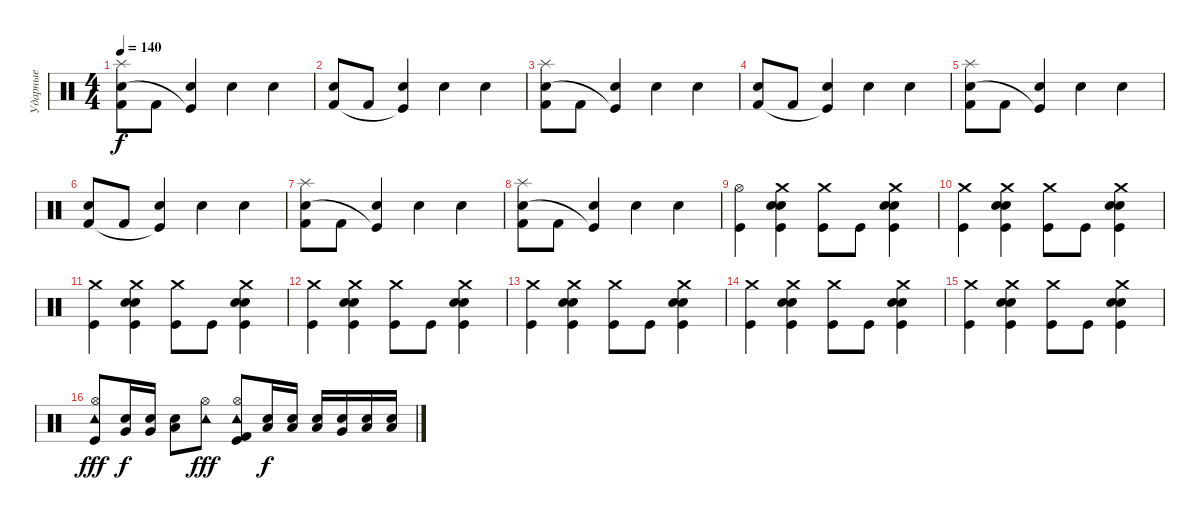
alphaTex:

\track ("Ударные" "Ударные") {instrument percussion}
\staff {score}
\articulation defaults
\ts (4 4)
\tempo 140
\clef neutral
\ks c
("Splash (hit)" "Electric Snare (hit)" "Kick (hit) 2").8{dy f} "Kick (hit) 2".8 ("Electric Snare (hit)" "Kick (hit)"{t}).4 "Electric Snare (hit)".4 "Electric Snare (hit)".4 |
("Electric Snare (hit)" "Kick (hit) 2").8 "Kick (hit) 2".8 ("Electric Snare (hit)" "Kick (hit)"{t}).4 "Electric Snare (hit)".4 "Electric Snare (hit)".4 |
("Splash (hit)" "Electric Snare (hit)" "Kick (hit) 2").8 "Kick (hit) 2".8 ("Electric Snare (hit)" "Kick (hit)"{t}).4 "Electric Snare (hit)".4 "Electric Snare (hit)".4 |
("Electric Snare (hit)" "Kick (hit) 2").8 "Kick (hit) 2".8 ("Electric Snare (hit)" "Kick (hit)"{t}).4 "Electric Snare (hit)".4 "Electric Snare (hit)".4 |
("Splash (hit)" "Electric Snare (hit)" "Kick (hit) 2").8 "Kick (hit) 2".8 ("Electric Snare (hit)" "Kick (hit)"{t}).4 "Electric Snare (hit)".4 "Electric Snare (hit)".4 |
("Electric Snare (hit)" "Kick (hit) 2").8 "Kick (hit) 2".8 ("Electric Snare (hit)" "Kick (hit)"{t}).4 "Electric Snare (hit)".4 "Electric Snare (hit)".4 |
("Splash (hit)" "Electric Snare (hit)" "Kick (hit) 2").8 "Kick (hit) 2".8 ("Electric Snare (hit)" "Kick (hit)"{t}).4 "Electric Snare (hit)".4 "Electric Snare (hit)".4 |
("Splash (hit)" "Electric Snare (hit)" "Kick (hit) 2").8 "Kick (hit) 2".8 ("Electric Snare (hit)" "Kick (hit)"{t}).4 "Electric Snare (hit)".4 "Electric Snare (hit)".4 |
("Hi-Hat (open)" "Kick (hit)").4 ("Crash medium (hit)" "Electric Snare (hit)" "Snare (hit) 2" "Kick (hit)").4 ("Crash medium (hit)" "Kick (hit)").8 "Kick (hit)".8 ("Crash medium (hit)" "Electric Snare (hit)" "Snare (hit) 2" "Kick (hit)").4 |
("Crash medium (hit)" "Kick (hit)").4 ("Crash medium (hit)" "Electric Snare (hit)" "Snare (hit) 2" "Kick (hit)").4 ("Crash medium (hit)" "Kick (hit)").8 "Kick (hit)".8 ("Crash medium (hit)" "Electric Snare (hit)" "Snare (hit) 2" "Kick (hit)").4 |
("Crash medium (hit)" "Kick (hit)").4 ("Crash medium (hit)" "Electric Snare (hit)" "Snare (hit) 2" "Kick (hit)").4 ("Crash medium (hit)" "Kick (hit)").8 "Kick (hit)".8 ("Crash medium (hit)" "Electric Snare (hit)" "Snare (hit) 2" "Kick (hit)").4 |
("Crash medium (hit)" "Kick (hit)").4 ("Crash medium (hit)" "Electric Snare (hit)" "Snare (hit) 2" "Kick (hit)").4 ("Crash medium (hit)" "Kick (hit)").8 "Kick (hit)".8 ("Crash medium (hit)" "Electric Snare (hit)" "Snare (hit) 2" "Kick (hit)").4 |
("Crash medium (hit)" "Kick (hit)").4 ("Crash medium (hit)" "Electric Snare (hit)" "Snare (hit) 2" "Kick (hit)").4 ("Crash medium (hit)" "Kick (hit)").8 "Kick (hit)".8 ("Crash medium (hit)" "Electric Snare (hit)" "Snare (hit) 2" "Kick (hit)").4 |
("Crash medium (hit)" "Kick (hit)").4 ("Crash medium (hit)" "Electric Snare (hit)" "Snare (hit) 2" "Kick (hit)").4 ("Crash medium (hit)" "Kick (hit)").8 "Kick (hit)".8 ("Crash medium (hit)" "Electric Snare (hit)" "Snare (hit) 2" "Kick (hit)").4 |
("Crash medium (hit)" "Kick (hit)").4 ("Crash medium (hit)" "Electric Snare (hit)" "Snare (hit) 2" "Kick (hit)").4 ("Crash medium (hit)" "Kick (hit)").8 "Kick (hit)".8 ("Crash medium (hit)" "Electric Snare (hit)" "Snare (hit) 2" "Kick (hit)").4 |
("Hi-Hat (open)" "Tambourine (hit)" "Kick (hit)").8{dy fff} ("Very Low Tom (hit)" "Snare (hit) 2").16{dy f} ("Very Low Tom (hit)" "Snare (hit) 2").16 ("Low Floor Tom (hit)" "Snare (hit) 2").8 ("Hi-Hat (open)" "Tambourine (hit)").8{dy fff} ("Hi-Hat (open)" "Tambourine (hit)" "Kick (hit)" "Kick (hit) 2").8 ("Low Tom (hit)" "Snare (hit) 2").16{dy f} ("Low Tom (hit)" "Snare (hit) 2").16 ("Low Tom (hit)" "Snare (hit) 2").16 ("Very Low Tom (hit)" "Snare (hit) 2").16 ("Low Floor Tom (hit)" "Snare (hit) 2").16 ("Low Floor Tom (hit)" "Snare (hit) 2").16
